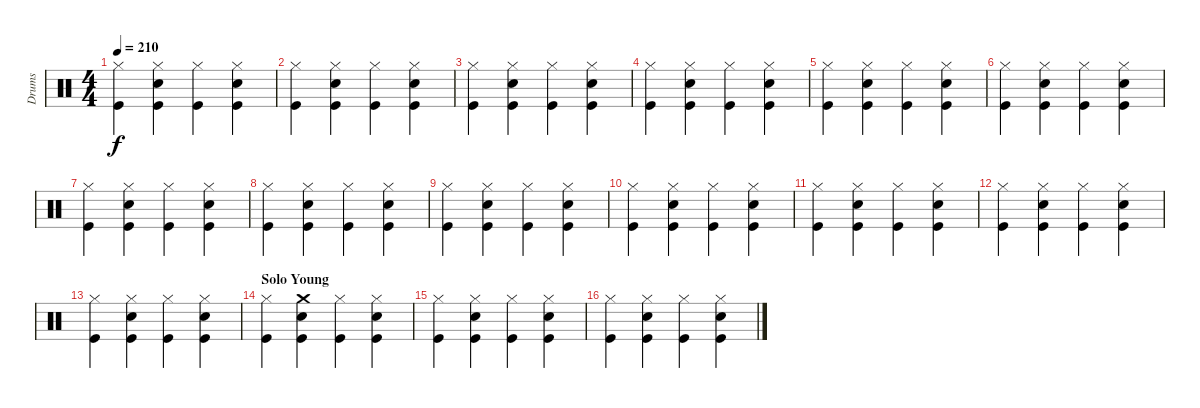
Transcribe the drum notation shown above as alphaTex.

\track ("Drums" "Drums") {instrument percussion}
\staff {score}
\articulation defaults
\ts (4 4)
\tempo 210
\clef neutral
\ks c
("Hi-Hat (closed)" "Kick (hit)").4{dy f} ("Hi-Hat (closed)" "Snare (hit) 2" "Kick (hit)").4 ("Hi-Hat (closed)" "Kick (hit)").4 ("Hi-Hat (closed)" "Snare (hit) 2" "Kick (hit)").4 |
("Hi-Hat (closed)" "Kick (hit)").4 ("Hi-Hat (closed)" "Snare (hit) 2" "Kick (hit)").4 ("Hi-Hat (closed)" "Kick (hit)").4 ("Hi-Hat (closed)" "Snare (hit) 2" "Kick (hit)").4 |
("Hi-Hat (closed)" "Kick (hit)").4 ("Hi-Hat (closed)" "Snare (hit) 2" "Kick (hit)").4 ("Hi-Hat (closed)" "Kick (hit)").4 ("Hi-Hat (closed)" "Snare (hit) 2" "Kick (hit)").4 |
("Hi-Hat (closed)" "Kick (hit)").4 ("Hi-Hat (closed)" "Snare (hit) 2" "Kick (hit)").4 ("Hi-Hat (closed)" "Kick (hit)").4 ("Hi-Hat (closed)" "Snare (hit) 2" "Kick (hit)").4 |
("Hi-Hat (closed)" "Kick (hit)").4 ("Hi-Hat (closed)" "Snare (hit) 2" "Kick (hit)").4 ("Hi-Hat (closed)" "Kick (hit)").4 ("Hi-Hat (closed)" "Snare (hit) 2" "Kick (hit)").4 |
("Hi-Hat (closed)" "Kick (hit)").4 ("Hi-Hat (closed)" "Snare (hit) 2" "Kick (hit)").4 ("Hi-Hat (closed)" "Kick (hit)").4 ("Hi-Hat (closed)" "Snare (hit) 2" "Kick (hit)").4 |
("Hi-Hat (closed)" "Kick (hit)").4 ("Hi-Hat (closed)" "Snare (hit) 2" "Kick (hit)").4 ("Hi-Hat (closed)" "Kick (hit)").4 ("Hi-Hat (closed)" "Snare (hit) 2" "Kick (hit)").4 |
("Hi-Hat (closed)" "Kick (hit)").4 ("Hi-Hat (closed)" "Snare (hit) 2" "Kick (hit)").4 ("Hi-Hat (closed)" "Kick (hit)").4 ("Hi-Hat (closed)" "Snare (hit) 2" "Kick (hit)").4 |
("Hi-Hat (closed)" "Kick (hit)").4 ("Hi-Hat (closed)" "Snare (hit) 2" "Kick (hit)").4 ("Hi-Hat (closed)" "Kick (hit)").4 ("Hi-Hat (closed)" "Snare (hit) 2" "Kick (hit)").4 |
("Hi-Hat (closed)" "Kick (hit)").4 ("Hi-Hat (closed)" "Snare (hit) 2" "Kick (hit)").4 ("Hi-Hat (closed)" "Kick (hit)").4 ("Hi-Hat (closed)" "Snare (hit) 2" "Kick (hit)").4 |
("Hi-Hat (closed)" "Kick (hit)").4 ("Hi-Hat (closed)" "Snare (hit) 2" "Kick (hit)").4 ("Hi-Hat (closed)" "Kick (hit)").4 ("Hi-Hat (closed)" "Snare (hit) 2" "Kick (hit)").4 |
("Hi-Hat (closed)" "Kick (hit)").4 ("Hi-Hat (closed)" "Snare (hit) 2" "Kick (hit)").4 ("Hi-Hat (closed)" "Kick (hit)").4 ("Hi-Hat (closed)" "Snare (hit) 2" "Kick (hit)").4 |
("Hi-Hat (closed)" "Kick (hit)").4 ("Hi-Hat (closed)" "Snare (hit) 2" "Kick (hit)").4 ("Hi-Hat (closed)" "Kick (hit)").4 ("Hi-Hat (closed)" "Snare (hit) 2" "Kick (hit)").4 |
\section ("" "Solo Young")
("Hi-Hat (closed)" "Kick (hit)").4 ("Crash medium (hit)" "Snare (hit) 2" "Kick (hit)").4 ("Hi-Hat (closed)" "Kick (hit)").4 ("Hi-Hat (closed)" "Snare (hit) 2" "Kick (hit)").4 |
("Hi-Hat (closed)" "Kick (hit)").4 ("Hi-Hat (closed)" "Snare (hit) 2" "Kick (hit)").4 ("Hi-Hat (closed)" "Kick (hit)").4 ("Hi-Hat (closed)" "Snare (hit) 2" "Kick (hit)").4 |
("Hi-Hat (closed)" "Kick (hit)").4 ("Hi-Hat (closed)" "Snare (hit) 2" "Kick (hit)").4 ("Hi-Hat (closed)" "Kick (hit)").4 ("Hi-Hat (closed)" "Snare (hit) 2" "Kick (hit)").4
